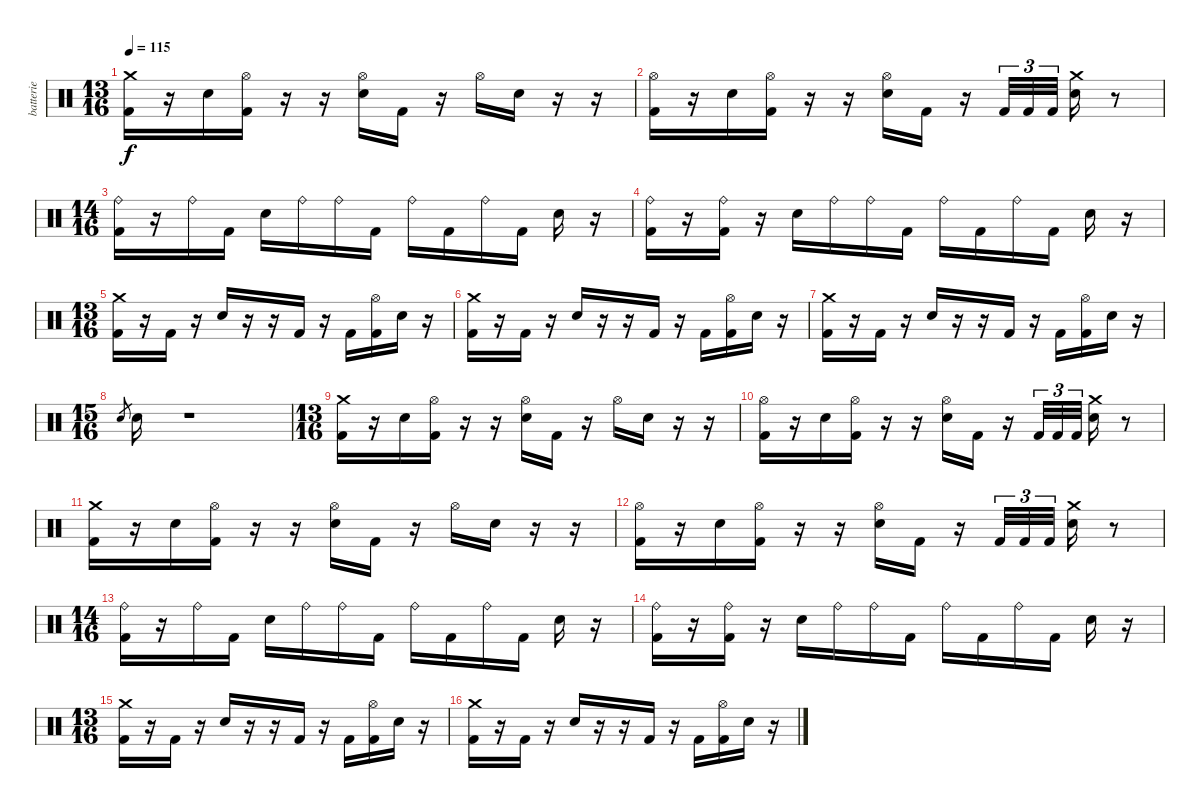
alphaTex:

\track ("batterie" "batterie") {instrument percussion}
\staff {score}
\articulation defaults
\ts (13 16)
\tempo 115
\clef neutral
\ks c
("Crash medium (hit)" "Kick (hit) 2").16{dy f} r.16 "Electric Snare (hit)".16 ("Hi-Hat (open)" "Kick (hit) 2").16 r.16 r.16 ("Hi-Hat (open)" "Electric Snare (hit)").16 "Kick (hit) 2".16 r.16 "Hi-Hat (open)".16 "Electric Snare (hit)".16 r.16 r.16 |
("Hi-Hat (open)" "Kick (hit) 2").16 r.16 "Electric Snare (hit)".16 ("Hi-Hat (open)" "Kick (hit) 2").16 r.16 r.16 ("Hi-Hat (open)" "Electric Snare (hit)").16 "Kick (hit) 2".16 r.16 "Kick (hit) 2".32{tu (3 2)} "Kick (hit) 2".32{tu (3 2)} "Kick (hit) 2".32{tu (3 2)} ("Crash medium (hit)" "Electric Snare (hit)").16 r.8 |
\ts (14 16)
("Ride (bell)" "Kick (hit) 2").16 r.16 "Ride (bell)".16 "Kick (hit) 2".16 "Electric Snare (hit)".16 "Ride (bell)".16 "Ride (bell)".16 "Kick (hit) 2".16 "Ride (bell)".16 "Kick (hit) 2".16 "Ride (bell)".16 "Kick (hit) 2".16 "Electric Snare (hit)".16 r.16 |
("Ride (bell)" "Kick (hit) 2").16 r.16 ("Ride (bell)" "Kick (hit) 2").16 r.16 "Electric Snare (hit)".16 "Ride (bell)".16 "Ride (bell)".16 "Kick (hit) 2".16 "Ride (bell)".16 "Kick (hit) 2".16 "Ride (bell)".16 "Kick (hit) 2".16 "Electric Snare (hit)".16 r.16 |
\ts (13 16)
("Crash medium (hit)" "Kick (hit) 2").16 r.16 "Kick (hit) 2".16 r.16 "Electric Snare (hit)".16 r.16 r.16 "Kick (hit) 2".16 r.16 "Kick (hit) 2".16 ("Hi-Hat (open)" "Kick (hit) 2").16 "Electric Snare (hit)".16 r.16 |
("Crash medium (hit)" "Kick (hit) 2").16 r.16 "Kick (hit) 2".16 r.16 "Electric Snare (hit)".16 r.16 r.16 "Kick (hit) 2".16 r.16 "Kick (hit) 2".16 ("Hi-Hat (open)" "Kick (hit) 2").16 "Electric Snare (hit)".16 r.16 |
("Crash medium (hit)" "Kick (hit) 2").16 r.16 "Kick (hit) 2".16 r.16 "Electric Snare (hit)".16 r.16 r.16 "Kick (hit) 2".16 r.16 "Kick (hit) 2".16 ("Hi-Hat (open)" "Kick (hit) 2").16 "Electric Snare (hit)".16 r.16 |
\ts (15 16)
"Electric Snare (hit)".8{gr} "Electric Snare (hit)".16 r.1 |
\ts (13 16)
("Crash medium (hit)" "Kick (hit) 2").16 r.16 "Electric Snare (hit)".16 ("Hi-Hat (open)" "Kick (hit) 2").16 r.16 r.16 ("Hi-Hat (open)" "Electric Snare (hit)").16 "Kick (hit) 2".16 r.16 "Hi-Hat (open)".16 "Electric Snare (hit)".16 r.16 r.16 |
("Hi-Hat (open)" "Kick (hit) 2").16 r.16 "Electric Snare (hit)".16 ("Hi-Hat (open)" "Kick (hit) 2").16 r.16 r.16 ("Hi-Hat (open)" "Electric Snare (hit)").16 "Kick (hit) 2".16 r.16 "Kick (hit) 2".32{tu (3 2)} "Kick (hit) 2".32{tu (3 2)} "Kick (hit) 2".32{tu (3 2)} ("Crash medium (hit)" "Electric Snare (hit)").16 r.8 |
("Crash medium (hit)" "Kick (hit) 2").16 r.16 "Electric Snare (hit)".16 ("Hi-Hat (open)" "Kick (hit) 2").16 r.16 r.16 ("Hi-Hat (open)" "Electric Snare (hit)").16 "Kick (hit) 2".16 r.16 "Hi-Hat (open)".16 "Electric Snare (hit)".16 r.16 r.16 |
("Hi-Hat (open)" "Kick (hit) 2").16 r.16 "Electric Snare (hit)".16 ("Hi-Hat (open)" "Kick (hit) 2").16 r.16 r.16 ("Hi-Hat (open)" "Electric Snare (hit)").16 "Kick (hit) 2".16 r.16 "Kick (hit) 2".32{tu (3 2)} "Kick (hit) 2".32{tu (3 2)} "Kick (hit) 2".32{tu (3 2)} ("Crash medium (hit)" "Electric Snare (hit)").16 r.8 |
\ts (14 16)
("Ride (bell)" "Kick (hit) 2").16 r.16 "Ride (bell)".16 "Kick (hit) 2".16 "Electric Snare (hit)".16 "Ride (bell)".16 "Ride (bell)".16 "Kick (hit) 2".16 "Ride (bell)".16 "Kick (hit) 2".16 "Ride (bell)".16 "Kick (hit) 2".16 "Electric Snare (hit)".16 r.16 |
("Ride (bell)" "Kick (hit) 2").16 r.16 ("Ride (bell)" "Kick (hit) 2").16 r.16 "Electric Snare (hit)".16 "Ride (bell)".16 "Ride (bell)".16 "Kick (hit) 2".16 "Ride (bell)".16 "Kick (hit) 2".16 "Ride (bell)".16 "Kick (hit) 2".16 "Electric Snare (hit)".16 r.16 |
\ts (13 16)
("Crash medium (hit)" "Kick (hit) 2").16 r.16 "Kick (hit) 2".16 r.16 "Electric Snare (hit)".16 r.16 r.16 "Kick (hit) 2".16 r.16 "Kick (hit) 2".16 ("Hi-Hat (open)" "Kick (hit) 2").16 "Electric Snare (hit)".16 r.16 |
("Crash medium (hit)" "Kick (hit) 2").16 r.16 "Kick (hit) 2".16 r.16 "Electric Snare (hit)".16 r.16 r.16 "Kick (hit) 2".16 r.16 "Kick (hit) 2".16 ("Hi-Hat (open)" "Kick (hit) 2").16 "Electric Snare (hit)".16 r.16
